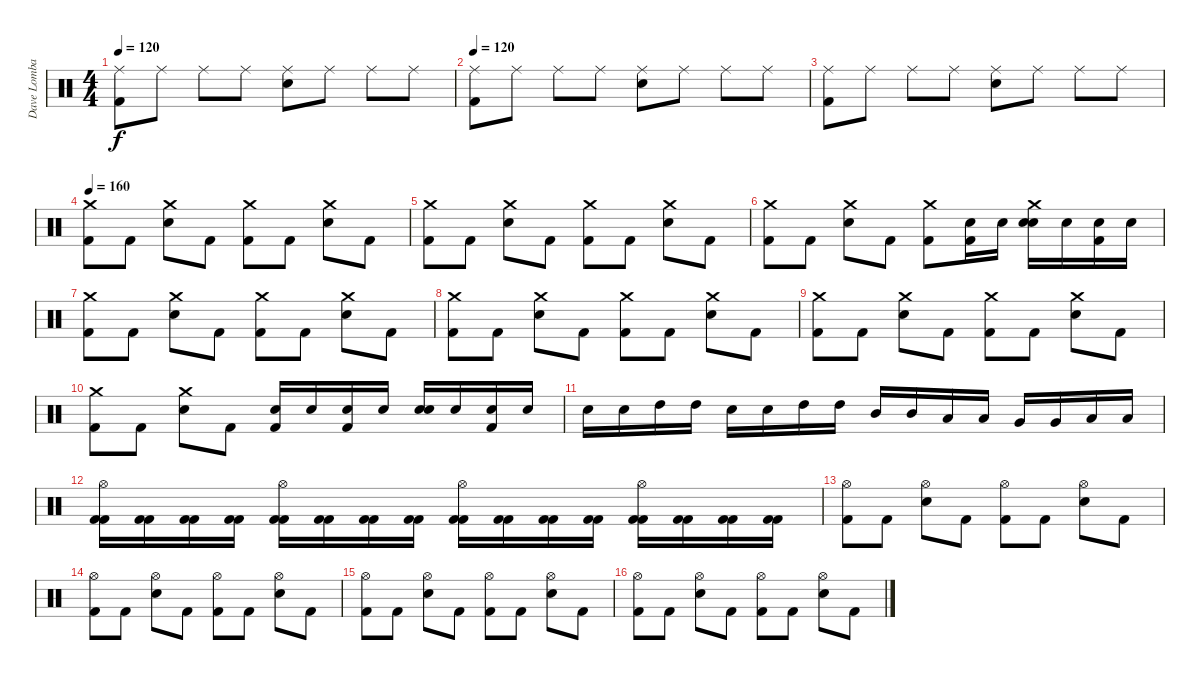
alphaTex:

\track ("Dave Lombardo" "Dave Lomba") {instrument percussion}
\staff {score}
\articulation defaults
\ts (4 4)
\tempo 120
\clef neutral
\ks c
("Ride (middle)" "Kick (hit) 2").8{dy f} "Ride (middle)".8 "Ride (middle)".8 "Ride (middle)".8 ("Ride (middle)" "Electric Snare (hit)").8 "Ride (middle)".8 "Ride (middle)".8 "Ride (middle)".8 |
\tempo 120
("Ride (middle)" "Kick (hit) 2").8 "Ride (middle)".8 "Ride (middle)".8 "Ride (middle)".8 ("Ride (middle)" "Electric Snare (hit)").8 "Ride (middle)".8 "Ride (middle)".8 "Ride (middle)".8 |
("Ride (middle)" "Kick (hit) 2").8 "Ride (middle)".8 "Ride (middle)".8 "Ride (middle)".8 ("Ride (middle)" "Electric Snare (hit)").8 "Ride (middle)".8 "Ride (middle)".8 "Ride (middle)".8 |
\tempo 160
("Crash medium (hit)" "Kick (hit) 2").8 "Kick (hit) 2".8 ("Crash medium (hit)" "Electric Snare (hit)").8 "Kick (hit) 2".8 ("Crash medium (hit)" "Kick (hit) 2").8 "Kick (hit) 2".8 ("Crash medium (hit)" "Electric Snare (hit)").8 "Kick (hit) 2".8 |
("Crash medium (hit)" "Kick (hit) 2").8 "Kick (hit) 2".8 ("Crash medium (hit)" "Electric Snare (hit)").8 "Kick (hit) 2".8 ("Crash medium (hit)" "Kick (hit) 2").8 "Kick (hit) 2".8 ("Crash medium (hit)" "Electric Snare (hit)").8 "Kick (hit) 2".8 |
("Crash medium (hit)" "Kick (hit) 2").8 "Kick (hit) 2".8 ("Crash medium (hit)" "Electric Snare (hit)").8 "Kick (hit) 2".8 ("Crash medium (hit)" "Kick (hit) 2").8 ("Electric Snare (hit)" "Kick (hit) 2").16 "Electric Snare (hit)".16 ("Electric Snare (hit)" "Crash medium (hit)" "Electric Snare (hit)").16 "Electric Snare (hit)".16 ("Electric Snare (hit)" "Kick (hit) 2").16 "Electric Snare (hit)".16 |
("Crash medium (hit)" "Kick (hit) 2").8 "Kick (hit) 2".8 ("Crash medium (hit)" "Electric Snare (hit)").8 "Kick (hit) 2".8 ("Crash medium (hit)" "Kick (hit) 2").8 "Kick (hit) 2".8 ("Crash medium (hit)" "Electric Snare (hit)").8 "Kick (hit) 2".8 |
("Crash medium (hit)" "Kick (hit) 2").8 "Kick (hit) 2".8 ("Crash medium (hit)" "Electric Snare (hit)").8 "Kick (hit) 2".8 ("Crash medium (hit)" "Kick (hit) 2").8 "Kick (hit) 2".8 ("Crash medium (hit)" "Electric Snare (hit)").8 "Kick (hit) 2".8 |
("Crash medium (hit)" "Kick (hit) 2").8 "Kick (hit) 2".8 ("Crash medium (hit)" "Electric Snare (hit)").8 "Kick (hit) 2".8 ("Crash medium (hit)" "Kick (hit) 2").8 "Kick (hit) 2".8 ("Crash medium (hit)" "Electric Snare (hit)").8 "Kick (hit) 2".8 |
("Crash medium (hit)" "Kick (hit) 2").8 "Kick (hit) 2".8 ("Crash medium (hit)" "Electric Snare (hit)").8 "Kick (hit) 2".8 ("Electric Snare (hit)" "Kick (hit) 2").16 "Electric Snare (hit)".16 ("Electric Snare (hit)" "Kick (hit) 2").16 "Electric Snare (hit)".16 ("Electric Snare (hit)" "Electric Snare (hit)").16 "Electric Snare (hit)".16 ("Electric Snare (hit)" "Kick (hit) 2").16 "Electric Snare (hit)".16 |
"Electric Snare (hit)".16 "Electric Snare (hit)".16 "High Tom (hit)".16 "High Tom (hit)".16 "Electric Snare (hit)".16 "Electric Snare (hit)".16 "High Tom (hit)".16 "High Tom (hit)".16 "Mid Tom (hit)".16 "Mid Tom (hit)".16 "Low Tom (hit)".16 "Low Tom (hit)".16 "Very Low Tom (hit)".16 "Very Low Tom (hit)".16 "Low Floor Tom (hit)".16 "Low Floor Tom (hit)".16 |
("Kick (hit) 2" "Hi-Hat (open)" "Kick (hit) 2").16 ("Kick (hit) 2" "Kick (hit) 2").16 ("Kick (hit) 2" "Kick (hit) 2").16 ("Kick (hit) 2" "Kick (hit) 2").16 ("Kick (hit) 2" "Hi-Hat (open)" "Kick (hit) 2").16 ("Kick (hit) 2" "Kick (hit) 2").16 ("Kick (hit) 2" "Kick (hit) 2").16 ("Kick (hit) 2" "Kick (hit) 2").16 ("Kick (hit) 2" "Hi-Hat (open)" "Kick (hit) 2").16 ("Kick (hit) 2" "Kick (hit) 2").16 ("Kick (hit) 2" "Kick (hit) 2").16 ("Kick (hit) 2" "Kick (hit) 2").16 ("Kick (hit) 2" "Hi-Hat (open)" "Kick (hit) 2").16 ("Kick (hit) 2" "Kick (hit) 2").16 ("Kick (hit) 2" "Kick (hit) 2").16 ("Kick (hit) 2" "Kick (hit) 2").16 |
("Hi-Hat (open)" "Kick (hit) 2").8 "Kick (hit) 2".8 ("Hi-Hat (open)" "Electric Snare (hit)").8 "Kick (hit) 2".8 ("Hi-Hat (open)" "Kick (hit) 2").8 "Kick (hit) 2".8 ("Hi-Hat (open)" "Electric Snare (hit)").8 "Kick (hit) 2".8 |
("Hi-Hat (open)" "Kick (hit) 2").8 "Kick (hit) 2".8 ("Hi-Hat (open)" "Electric Snare (hit)").8 "Kick (hit) 2".8 ("Hi-Hat (open)" "Kick (hit) 2").8 "Kick (hit) 2".8 ("Hi-Hat (open)" "Electric Snare (hit)").8 "Kick (hit) 2".8 |
("Hi-Hat (open)" "Kick (hit) 2").8 "Kick (hit) 2".8 ("Hi-Hat (open)" "Electric Snare (hit)").8 "Kick (hit) 2".8 ("Hi-Hat (open)" "Kick (hit) 2").8 "Kick (hit) 2".8 ("Hi-Hat (open)" "Electric Snare (hit)").8 "Kick (hit) 2".8 |
("Hi-Hat (open)" "Kick (hit) 2").8 "Kick (hit) 2".8 ("Hi-Hat (open)" "Electric Snare (hit)").8 "Kick (hit) 2".8 ("Hi-Hat (open)" "Kick (hit) 2").8 "Kick (hit) 2".8 ("Hi-Hat (open)" "Electric Snare (hit)").8 "Kick (hit) 2".8
